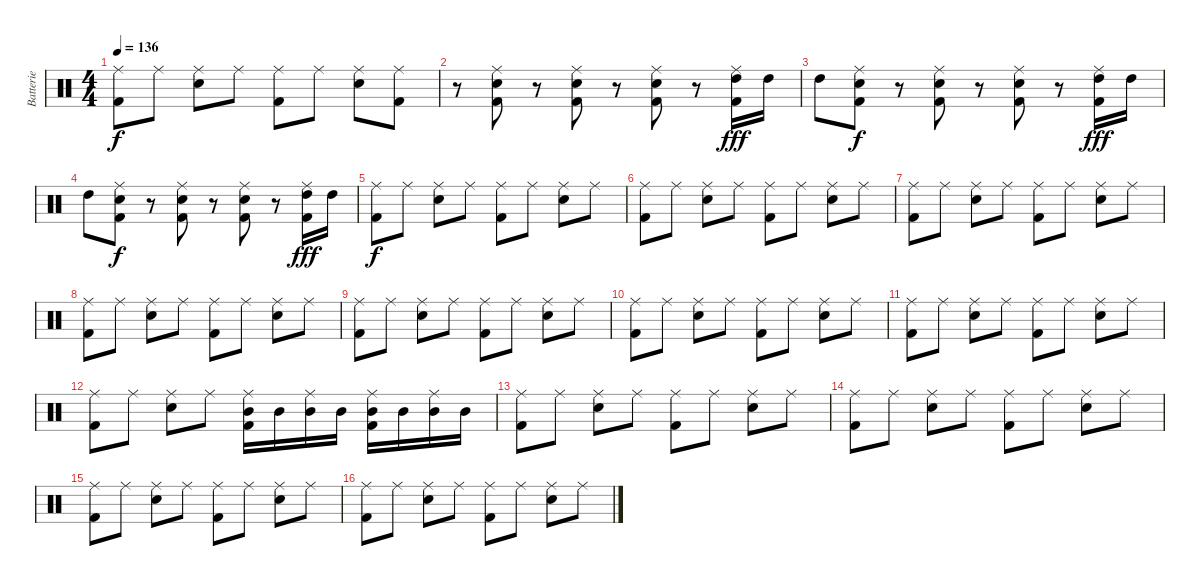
\track ("Batterie" "Batterie") {instrument percussion}
\staff {score}
\articulation defaults
\ts (4 4)
\tempo 136
\clef neutral
\ks c
("Ride (middle)" "Kick (hit) 2").8{dy f} "Ride (middle)".8 ("Ride (middle)" "Snare (hit) 2").8 "Ride (middle)".8 ("Ride (middle)" "Kick (hit) 2").8 "Ride (middle)".8 ("Ride (middle)" "Snare (hit) 2").8 ("Ride (middle)" "Kick (hit) 2").8 |
r.8 ("Ride (middle)" "Snare (hit) 2" "Kick (hit) 2").8 r.8 ("Ride (middle)" "Snare (hit) 2" "Kick (hit) 2").8 r.8 ("Ride (middle)" "Snare (hit) 2" "Kick (hit) 2").8 r.8 ("Ride (middle)" "High Tom (hit)" "Kick (hit) 2").16{dy fff} "High Tom (hit)".16 |
"High Tom (hit)".8 ("Ride (middle)" "Snare (hit) 2" "Kick (hit) 2").8{dy f} r.8 ("Ride (middle)" "Snare (hit) 2" "Kick (hit) 2").8 r.8 ("Ride (middle)" "Snare (hit) 2" "Kick (hit) 2").8 r.8 ("Ride (middle)" "High Tom (hit)" "Kick (hit) 2").16{dy fff} "High Tom (hit)".16 |
"High Tom (hit)".8 ("Ride (middle)" "Snare (hit) 2" "Kick (hit) 2").8{dy f} r.8 ("Ride (middle)" "Snare (hit) 2" "Kick (hit) 2").8 r.8 ("Ride (middle)" "Snare (hit) 2" "Kick (hit) 2").8 r.8 ("Ride (middle)" "High Tom (hit)" "Kick (hit) 2").16{dy fff} "High Tom (hit)".16 |
("Ride (middle)" "Kick (hit) 2").8{dy f} "Ride (middle)".8 ("Ride (middle)" "Snare (hit) 2").8 "Ride (middle)".8 ("Ride (middle)" "Kick (hit) 2").8 "Ride (middle)".8 ("Ride (middle)" "Snare (hit) 2").8 "Ride (middle)".8 |
("Ride (middle)" "Kick (hit) 2").8 "Ride (middle)".8 ("Ride (middle)" "Snare (hit) 2").8 "Ride (middle)".8 ("Ride (middle)" "Kick (hit) 2").8 "Ride (middle)".8 ("Ride (middle)" "Snare (hit) 2").8 "Ride (middle)".8 |
("Ride (middle)" "Kick (hit) 2").8 "Ride (middle)".8 ("Ride (middle)" "Snare (hit) 2").8 "Ride (middle)".8 ("Ride (middle)" "Kick (hit) 2").8 "Ride (middle)".8 ("Ride (middle)" "Snare (hit) 2").8 "Ride (middle)".8 |
("Ride (middle)" "Kick (hit) 2").8 "Ride (middle)".8 ("Ride (middle)" "Snare (hit) 2").8 "Ride (middle)".8 ("Ride (middle)" "Kick (hit) 2").8 "Ride (middle)".8 ("Ride (middle)" "Snare (hit) 2").8 "Ride (middle)".8 |
("Ride (middle)" "Kick (hit) 2").8 "Ride (middle)".8 ("Ride (middle)" "Snare (hit) 2").8 "Ride (middle)".8 ("Ride (middle)" "Kick (hit) 2").8 "Ride (middle)".8 ("Ride (middle)" "Snare (hit) 2").8 "Ride (middle)".8 |
("Ride (middle)" "Kick (hit) 2").8 "Ride (middle)".8 ("Ride (middle)" "Snare (hit) 2").8 "Ride (middle)".8 ("Ride (middle)" "Kick (hit) 2").8 "Ride (middle)".8 ("Ride (middle)" "Snare (hit) 2").8 "Ride (middle)".8 |
("Ride (middle)" "Kick (hit) 2").8 "Ride (middle)".8 ("Ride (middle)" "Snare (hit) 2").8 "Ride (middle)".8 ("Ride (middle)" "Kick (hit) 2").8 "Ride (middle)".8 ("Ride (middle)" "Snare (hit) 2").8 "Ride (middle)".8 |
("Ride (middle)" "Kick (hit) 2").8 "Ride (middle)".8 ("Ride (middle)" "Snare (hit) 2").8 "Ride (middle)".8 ("Ride (middle)" "Mid Tom (hit)" "Kick (hit) 2").16 "Mid Tom (hit)".16 ("Ride (middle)" "Mid Tom (hit)").16 "Mid Tom (hit)".16 ("Ride (middle)" "Mid Tom (hit)" "Kick (hit) 2").16 "Mid Tom (hit)".16 ("Ride (middle)" "Mid Tom (hit)").16 "Mid Tom (hit)".16 |
("Ride (middle)" "Kick (hit) 2").8{volume 12} "Ride (middle)".8 ("Ride (middle)" "Snare (hit) 2").8 "Ride (middle)".8 ("Ride (middle)" "Kick (hit) 2").8 "Ride (middle)".8 ("Ride (middle)" "Snare (hit) 2").8 "Ride (middle)".8 |
("Ride (middle)" "Kick (hit) 2").8{volume 10} "Ride (middle)".8 ("Ride (middle)" "Snare (hit) 2").8 "Ride (middle)".8 ("Ride (middle)" "Kick (hit) 2").8 "Ride (middle)".8 ("Ride (middle)" "Snare (hit) 2").8 "Ride (middle)".8 |
("Ride (middle)" "Kick (hit) 2").8{volume 8} "Ride (middle)".8 ("Ride (middle)" "Snare (hit) 2").8 "Ride (middle)".8 ("Ride (middle)" "Kick (hit) 2").8 "Ride (middle)".8 ("Ride (middle)" "Snare (hit) 2").8 "Ride (middle)".8 |
("Ride (middle)" "Kick (hit) 2").8{volume 7} "Ride (middle)".8 ("Ride (middle)" "Snare (hit) 2").8 "Ride (middle)".8 ("Ride (middle)" "Kick (hit) 2").8 "Ride (middle)".8 ("Ride (middle)" "Snare (hit) 2").8 "Ride (middle)".8
